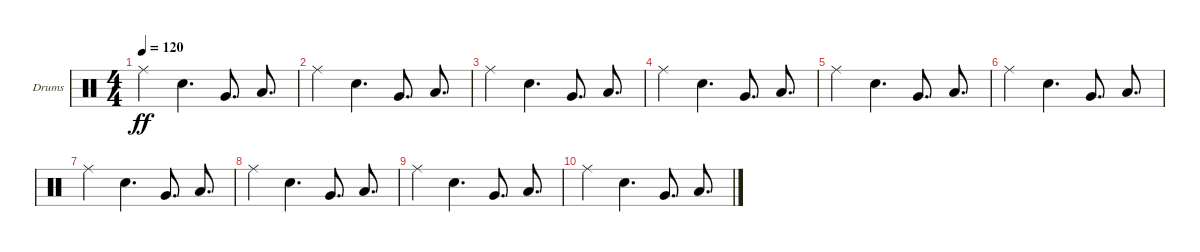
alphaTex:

\defaultSystemsLayout 4
\bracketExtendMode groupsimilarinstruments
\firstSystemTrackNameOrientation horizontal
\otherSystemsTrackNameOrientation horizontal
\track ("Drumkit" "Drums") {instrument percussion}
\staff {score}
\articulation defaults
\ts (4 4)
\tempo 120
\clef neutral
\ks c "Ride (middle)".4{dy ff} "Snare (hit) 2".4{d} "Very Low Tom (hit)".8{d} "Low Tom (hit)".8{d}
|
"Ride (middle)".4 "Snare (hit) 2".4{d} "Very Low Tom (hit)".8{d} "Low Tom (hit)".8{d} |
"Ride (middle)".4 "Snare (hit) 2".4{d} "Very Low Tom (hit)".8{d} "Low Tom (hit)".8{d} |
"Ride (middle)".4 "Snare (hit) 2".4{d} "Very Low Tom (hit)".8{d} "Low Tom (hit)".8{d} |
"Ride (middle)".4 "Snare (hit) 2".4{d} "Very Low Tom (hit)".8{d} "Low Tom (hit)".8{d} |
"Ride (middle)".4 "Snare (hit) 2".4{d} "Very Low Tom (hit)".8{d} "Low Tom (hit)".8{d} |
"Ride (middle)".4 "Snare (hit) 2".4{d} "Very Low Tom (hit)".8{d} "Low Tom (hit)".8{d} |
"Ride (middle)".4 "Snare (hit) 2".4{d} "Very Low Tom (hit)".8{d} "Low Tom (hit)".8{d} |
"Ride (middle)".4 "Snare (hit) 2".4{d} "Very Low Tom (hit)".8{d} "Low Tom (hit)".8{d} |
"Ride (middle)".4 "Snare (hit) 2".4{d} "Very Low Tom (hit)".8{d} "Low Tom (hit)".8{d}
